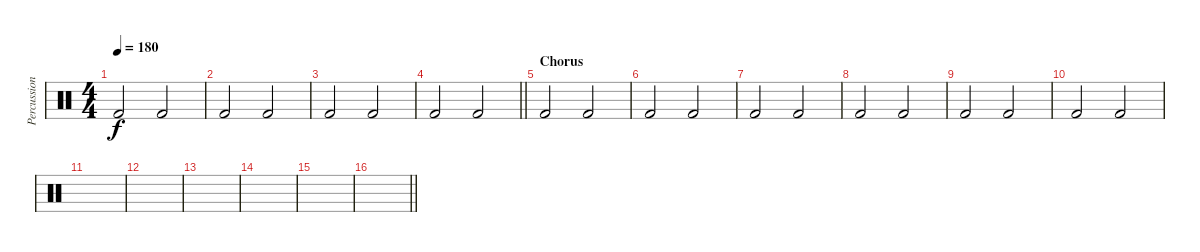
\track ("Percussion" "Percussion") {instrument percussion}
\staff {score}
\articulation defaults
\ts (4 4)
\tempo 180
\clef neutral
\ks c "Kick (hit) 2".2{dy f} "Kick (hit) 2".2
|
"Kick (hit) 2".2 "Kick (hit) 2".2 |
"Kick (hit) 2".2 "Kick (hit) 2".2 |
\barLineRight lightlight "Kick (hit) 2".2 "Kick (hit) 2".2
|
\section ("" "Chorus")
"Kick (hit) 2".2 "Kick (hit) 2".2 |
"Kick (hit) 2".2 "Kick (hit) 2".2 |
"Kick (hit) 2".2 "Kick (hit) 2".2 |
"Kick (hit) 2".2 "Kick (hit) 2".2 |
"Kick (hit) 2".2 "Kick (hit) 2".2 |
"Kick (hit) 2".2 "Kick (hit) 2".2 |
|
|
|
|
|
\barLineRight lightlight
